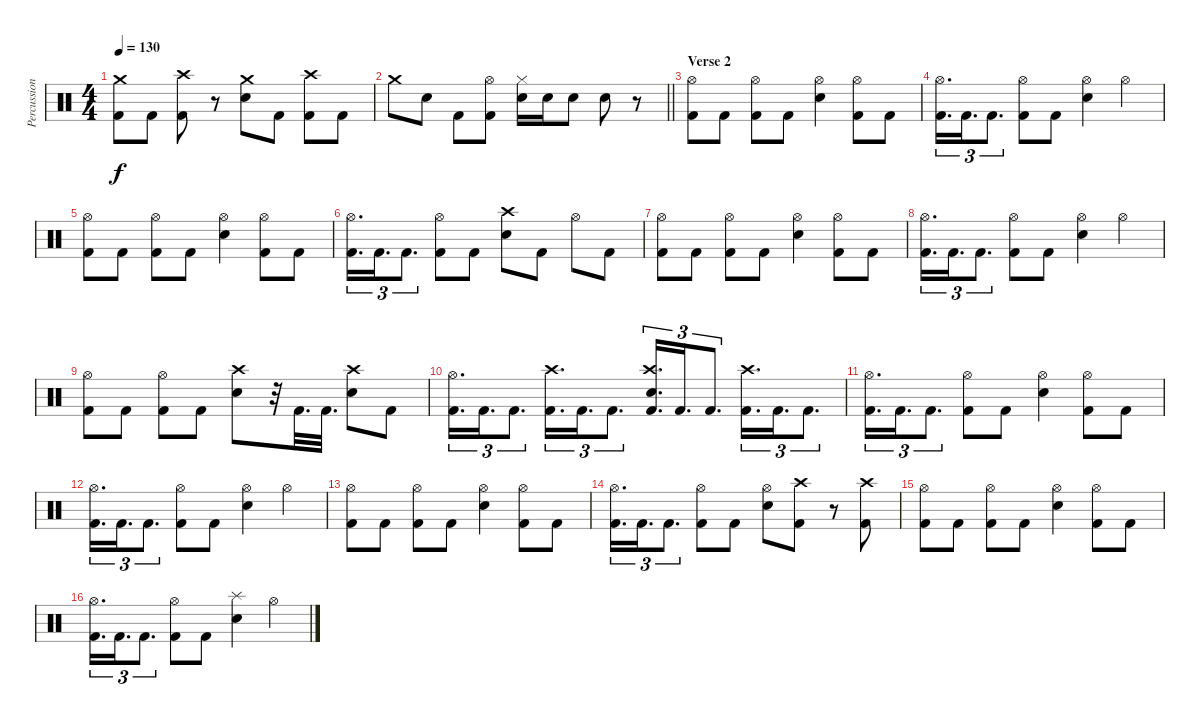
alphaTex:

\track ("Percussion" "Percussion") {instrument percussion}
\staff {score}
\articulation defaults
\ts (4 4)
\tempo 130
\clef neutral
\ks c
("Kick (hit) 2" "Crash medium (hit)").8{dy f} "Kick (hit) 2".8 ("Kick (hit) 2" "Crash high (hit)").8 r.8 ("Electric Snare (hit)" "Crash medium (hit)").8 "Kick (hit) 2".8 ("Kick (hit) 2" "Crash high (hit)").8 "Kick (hit) 2".8 |
\barLineRight lightlight "Crash medium (hit)".8 "Electric Snare (hit)".8 "Kick (hit) 2".8
("Kick (hit) 2" "Hi-Hat (open)").8 ("Electric Snare (hit)" "Hi-Hat (closed)").16 "Electric Snare (hit)".16 "Electric Snare (hit)".8 "Electric Snare (hit)".8 r.8 |
\section ("" "Verse 2")
("Hi-Hat (open)" "Kick (hit) 2").8{volume 13} "Kick (hit) 2".8 ("Hi-Hat (open)" "Kick (hit) 2").8 "Kick (hit) 2".8 ("Hi-Hat (open)" "Electric Snare (hit)").4 ("Hi-Hat (open)" "Kick (hit) 2").8 "Kick (hit) 2".8 |
("Hi-Hat (open)" "Kick (hit) 2").16{d tu (3 2)} "Kick (hit) 2".16{d tu (3 2)} "Kick (hit) 2".8{d tu (3 2) beam split} ("Hi-Hat (open)" "Kick (hit) 2").8{beam merge} "Kick (hit) 2".8 ("Hi-Hat (open)" "Electric Snare (hit)").4 "Hi-Hat (open)".4 |
("Hi-Hat (open)" "Kick (hit) 2").8{volume 13} "Kick (hit) 2".8 ("Hi-Hat (open)" "Kick (hit) 2").8 "Kick (hit) 2".8 ("Hi-Hat (open)" "Electric Snare (hit)").4 ("Hi-Hat (open)" "Kick (hit) 2").8 "Kick (hit) 2".8 |
("Hi-Hat (open)" "Kick (hit) 2").16{d tu (3 2)} "Kick (hit) 2".16{d tu (3 2)} "Kick (hit) 2".8{d tu (3 2) beam split} ("Hi-Hat (open)" "Kick (hit) 2").8{beam merge} "Kick (hit) 2".8 ("Crash high (hit)" "Electric Snare (hit)").8 "Kick (hit) 2".8 "Hi-Hat (open)".8 "Kick (hit) 2".8 |
("Hi-Hat (open)" "Kick (hit) 2").8{volume 13} "Kick (hit) 2".8 ("Hi-Hat (open)" "Kick (hit) 2").8 "Kick (hit) 2".8 ("Hi-Hat (open)" "Electric Snare (hit)").4 ("Hi-Hat (open)" "Kick (hit) 2").8 "Kick (hit) 2".8 |
("Hi-Hat (open)" "Kick (hit) 2").16{d tu (3 2)} "Kick (hit) 2".16{d tu (3 2)} "Kick (hit) 2".8{d tu (3 2) beam split} ("Hi-Hat (open)" "Kick (hit) 2").8{beam merge} "Kick (hit) 2".8 ("Hi-Hat (open)" "Electric Snare (hit)").4 "Hi-Hat (open)".4 |
("Hi-Hat (open)" "Kick (hit) 2").8{volume 13} "Kick (hit) 2".8 ("Hi-Hat (open)" "Kick (hit) 2").8 "Kick (hit) 2".8 ("Crash high (hit)" "Electric Snare (hit)").8 r.32 "Kick (hit) 2".32{d} "Kick (hit) 2".32{d} ("Crash high (hit)" "Electric Snare (hit)").8 "Kick (hit) 2".8 |
("Hi-Hat (open)" "Kick (hit) 2").16{d tu (3 2)} "Kick (hit) 2".16{d tu (3 2)} "Kick (hit) 2".8{d tu (3 2)} ("Crash high (hit)" "Kick (hit) 2").16{d tu (3 2)} "Kick (hit) 2".16{d tu (3 2)} "Kick (hit) 2".8{d tu (3 2)} ("Crash high (hit)" "Electric Snare (hit)" "Kick (hit) 2").16{d tu (3 2)} "Kick (hit) 2".16{d tu (3 2)} "Kick (hit) 2".8{d tu (3 2)} ("Crash high (hit)" "Kick (hit) 2").16{d tu (3 2)} "Kick (hit) 2".16{d tu (3 2)} "Kick (hit) 2".8{d tu (3 2)} |
("Hi-Hat (open)" "Kick (hit) 2").16{d tu (3 2) volume 13} "Kick (hit) 2".16{d tu (3 2)} "Kick (hit) 2".8{d tu (3 2)} ("Hi-Hat (open)" "Kick (hit) 2").8 "Kick (hit) 2".8 ("Hi-Hat (open)" "Electric Snare (hit)").4 ("Hi-Hat (open)" "Kick (hit) 2").8 "Kick (hit) 2".8 |
("Hi-Hat (open)" "Kick (hit) 2").16{d tu (3 2)} "Kick (hit) 2".16{d tu (3 2)} "Kick (hit) 2".8{d tu (3 2) beam split} ("Hi-Hat (open)" "Kick (hit) 2").8{beam merge} "Kick (hit) 2".8 ("Hi-Hat (open)" "Electric Snare (hit)").4 "Hi-Hat (open)".4 |
("Hi-Hat (open)" "Kick (hit) 2").8{volume 13} "Kick (hit) 2".8 ("Hi-Hat (open)" "Kick (hit) 2").8 "Kick (hit) 2".8 ("Hi-Hat (open)" "Electric Snare (hit)").4 ("Hi-Hat (open)" "Kick (hit) 2").8 "Kick (hit) 2".8 |
("Hi-Hat (open)" "Kick (hit) 2").16{d tu (3 2)} "Kick (hit) 2".16{d tu (3 2)} "Kick (hit) 2".8{d tu (3 2) beam split} ("Hi-Hat (open)" "Kick (hit) 2").8{beam merge} "Kick (hit) 2".8 ("Hi-Hat (open)" "Electric Snare (hit)").8 ("Crash high (hit)" "Kick (hit) 2").8 r.8 ("Crash high (hit)" "Kick (hit) 2").8 |
("Hi-Hat (open)" "Kick (hit) 2").8{volume 13} "Kick (hit) 2".8 ("Hi-Hat (open)" "Kick (hit) 2").8 "Kick (hit) 2".8 ("Hi-Hat (open)" "Electric Snare (hit)").4 ("Hi-Hat (open)" "Kick (hit) 2").8 "Kick (hit) 2".8 |
("Hi-Hat (open)" "Kick (hit) 2").16{d tu (3 2)} "Kick (hit) 2".16{d tu (3 2)} "Kick (hit) 2".8{d tu (3 2) beam split} ("Hi-Hat (open)" "Kick (hit) 2").8{beam merge} "Kick (hit) 2".8 ("Splash (hit)" "Electric Snare (hit)").4 "Hi-Hat (open)".4
